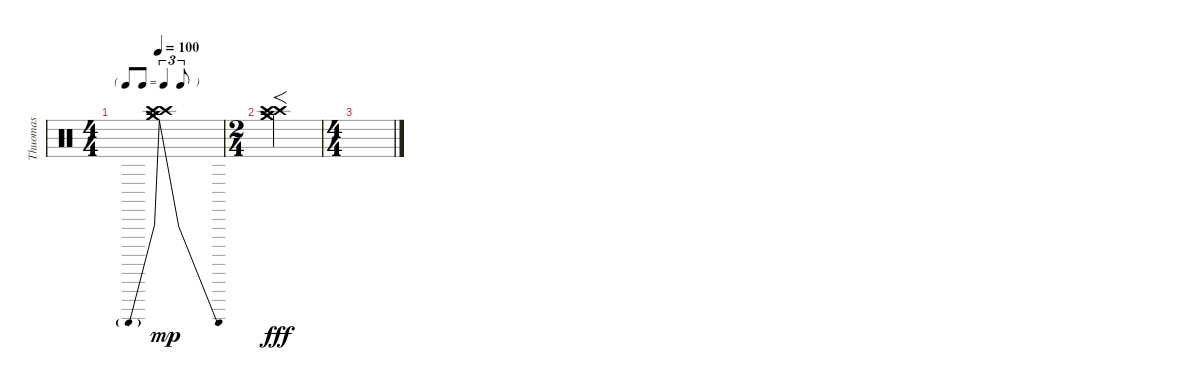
\track ("Thuomas" "Thuomas") {instrument percussion}
\staff {score}
\articulation defaults
\ts (4 4)
\tf triplet8th
\tempo 100
\clef neutral
\ks c
("Crash medium (hit)"{be (prebendrelease 0 12 60 0)} "Crash medium (hit)"{be (custom 0 12 14 0 20 0 40 0 60 0)} "Crash high (hit)"{be (custom 0 12 15 0 20 0 40 0 60 0)} "Crash high (hit)"{be (custom 0 12 15 0 20 0 40 0 60 0)}).1{dy mp} |
\ts (2 4)
("Crash medium (hit)" "Crash medium (hit)" "Crash high (hit)" "Crash high (hit)").2{f dy fff} |
\ts (4 4)
